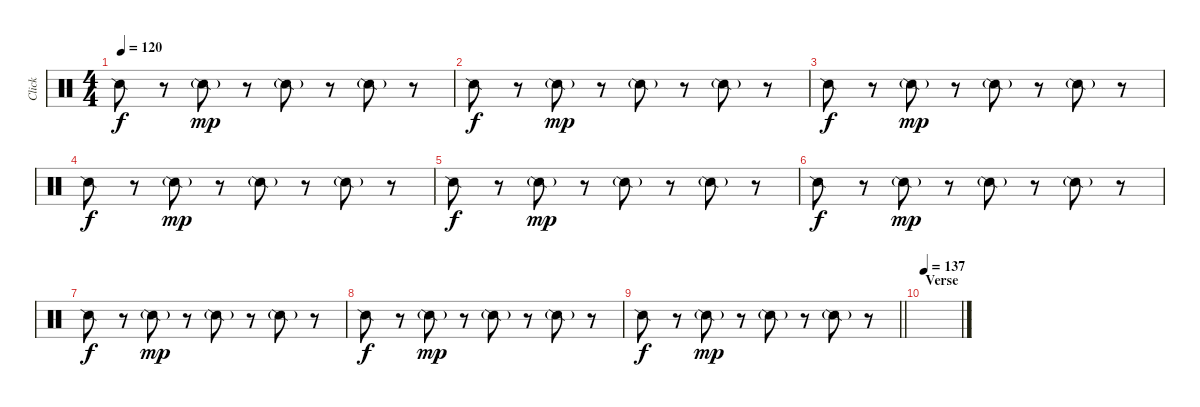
\track ("Click" "Click") {mute instrument percussion}
\staff {score}
\articulation defaults
\ts (4 4)
\tempo 120
\clef neutral
\ks c "Snare (side stick) 2".8{dy f}
r.8 "Snare (side stick) 2"{g}.8{dy mp} r.8 "Snare (side stick) 2"{g}.8 r.8 "Snare (side stick) 2"{g}.8 r.8 |
"Snare (side stick) 2".8{dy f} r.8 "Snare (side stick) 2"{g}.8{dy mp} r.8 "Snare (side stick) 2"{g}.8 r.8 "Snare (side stick) 2"{g}.8 r.8 |
"Snare (side stick) 2".8{dy f} r.8 "Snare (side stick) 2"{g}.8{dy mp} r.8 "Snare (side stick) 2"{g}.8 r.8 "Snare (side stick) 2"{g}.8 r.8 |
"Snare (side stick) 2".8{dy f} r.8 "Snare (side stick) 2"{g}.8{dy mp} r.8 "Snare (side stick) 2"{g}.8 r.8 "Snare (side stick) 2"{g}.8 r.8 |
"Snare (side stick) 2".8{dy f} r.8 "Snare (side stick) 2"{g}.8{dy mp} r.8 "Snare (side stick) 2"{g}.8 r.8 "Snare (side stick) 2"{g}.8 r.8 |
"Snare (side stick) 2".8{dy f} r.8 "Snare (side stick) 2"{g}.8{dy mp} r.8 "Snare (side stick) 2"{g}.8 r.8 "Snare (side stick) 2"{g}.8 r.8 |
"Snare (side stick) 2".8{dy f} r.8 "Snare (side stick) 2"{g}.8{dy mp} r.8 "Snare (side stick) 2"{g}.8 r.8 "Snare (side stick) 2"{g}.8 r.8 |
"Snare (side stick) 2".8{dy f} r.8 "Snare (side stick) 2"{g}.8{dy mp} r.8 "Snare (side stick) 2"{g}.8 r.8 "Snare (side stick) 2"{g}.8 r.8 |
\barLineRight lightlight "Snare (side stick) 2".8{dy f}
r.8 "Snare (side stick) 2"{g}.8{dy mp} r.8 "Snare (side stick) 2"{g}.8 r.8 "Snare (side stick) 2"{g}.8 r.8 |
\section ("" "Verse")
\tempo 137
